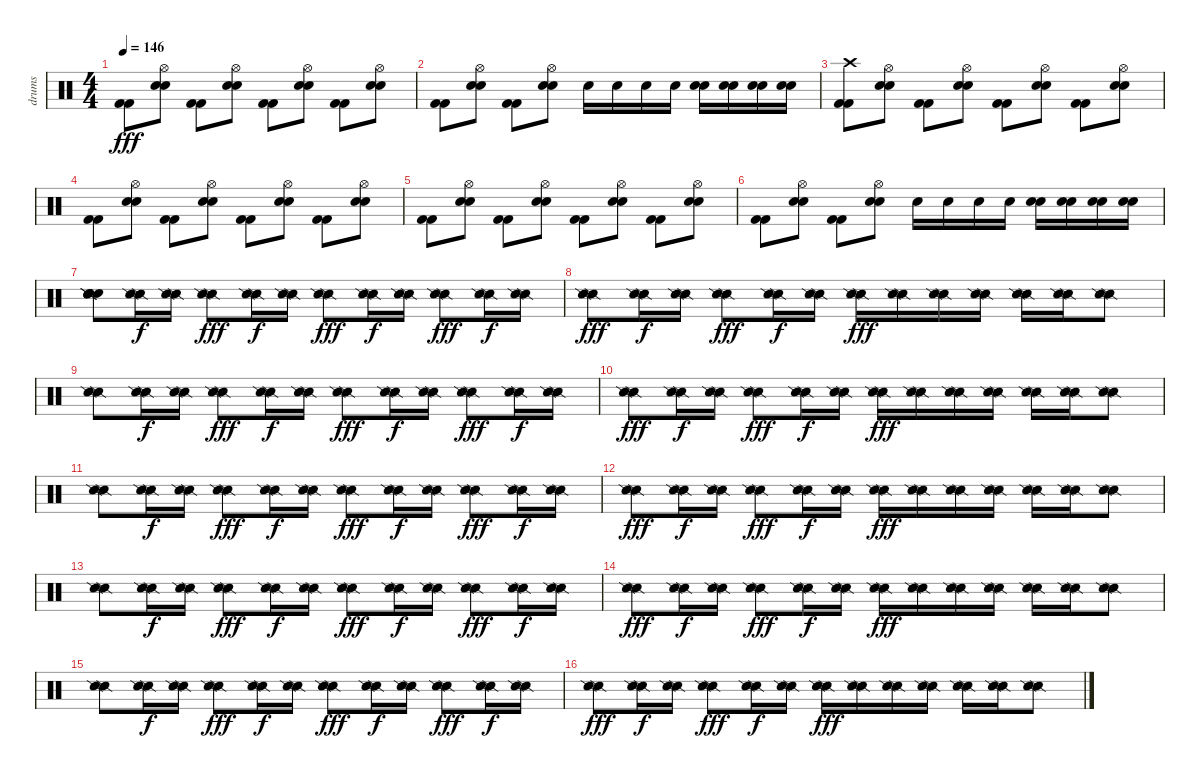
\track ("drums" "drums") {instrument percussion}
\staff {score}
\articulation defaults
\ts (4 4)
\tempo 146
\clef neutral
\ks c
("Kick (hit) 2" "Kick (hit) 2").8{dy fff} ("Hi-Hat (open)" "Electric Snare (hit)" "Electric Snare (hit)").8 ("Kick (hit) 2" "Kick (hit) 2").8 ("Hi-Hat (open)" "Electric Snare (hit)" "Electric Snare (hit)").8 ("Kick (hit) 2" "Kick (hit) 2").8 ("Hi-Hat (open)" "Electric Snare (hit)" "Electric Snare (hit)").8 ("Kick (hit) 2" "Kick (hit) 2").8 ("Hi-Hat (open)" "Electric Snare (hit)" "Electric Snare (hit)").8 |
("Kick (hit) 2" "Kick (hit) 2").8 ("Hi-Hat (open)" "Electric Snare (hit)" "Electric Snare (hit)").8 ("Kick (hit) 2" "Kick (hit) 2").8 ("Hi-Hat (open)" "Electric Snare (hit)" "Electric Snare (hit)").8 "Electric Snare (hit)".16 "Electric Snare (hit)".16 "Electric Snare (hit)".16 "Electric Snare (hit)".16 ("Electric Snare (hit)" "Electric Snare (hit)").16 ("Electric Snare (hit)" "Electric Snare (hit)").16 ("Electric Snare (hit)" "Electric Snare (hit)").16 ("Electric Snare (hit)" "Electric Snare (hit)").16 |
("Crash high (hit)" "Kick (hit) 2" "Kick (hit) 2").8 ("Hi-Hat (open)" "Electric Snare (hit)" "Electric Snare (hit)").8 ("Kick (hit) 2" "Kick (hit) 2").8 ("Hi-Hat (open)" "Electric Snare (hit)" "Electric Snare (hit)").8 ("Kick (hit) 2" "Kick (hit) 2").8 ("Hi-Hat (open)" "Electric Snare (hit)" "Electric Snare (hit)").8 ("Kick (hit) 2" "Kick (hit) 2").8 ("Hi-Hat (open)" "Electric Snare (hit)" "Electric Snare (hit)").8 |
("Kick (hit) 2" "Kick (hit) 2").8 ("Hi-Hat (open)" "Electric Snare (hit)" "Electric Snare (hit)").8 ("Kick (hit) 2" "Kick (hit) 2").8 ("Hi-Hat (open)" "Electric Snare (hit)" "Electric Snare (hit)").8 ("Kick (hit) 2" "Kick (hit) 2").8 ("Hi-Hat (open)" "Electric Snare (hit)" "Electric Snare (hit)").8 ("Kick (hit) 2" "Kick (hit) 2").8 ("Hi-Hat (open)" "Electric Snare (hit)" "Electric Snare (hit)").8 |
("Kick (hit) 2" "Kick (hit) 2").8 ("Hi-Hat (open)" "Electric Snare (hit)" "Electric Snare (hit)").8 ("Kick (hit) 2" "Kick (hit) 2").8 ("Hi-Hat (open)" "Electric Snare (hit)" "Electric Snare (hit)").8 ("Kick (hit) 2" "Kick (hit) 2").8 ("Hi-Hat (open)" "Electric Snare (hit)" "Electric Snare (hit)").8 ("Kick (hit) 2" "Kick (hit) 2").8 ("Hi-Hat (open)" "Electric Snare (hit)" "Electric Snare (hit)").8 |
("Kick (hit) 2" "Kick (hit) 2").8 ("Hi-Hat (open)" "Electric Snare (hit)" "Electric Snare (hit)").8 ("Kick (hit) 2" "Kick (hit) 2").8 ("Hi-Hat (open)" "Electric Snare (hit)" "Electric Snare (hit)").8 "Electric Snare (hit)".16 "Electric Snare (hit)".16 "Electric Snare (hit)".16 "Electric Snare (hit)".16 ("Electric Snare (hit)" "Electric Snare (hit)").16 ("Electric Snare (hit)" "Electric Snare (hit)").16 ("Electric Snare (hit)" "Electric Snare (hit)").16 ("Electric Snare (hit)" "Electric Snare (hit)").16 |
("Electric Snare (hit)" "Electric Snare (hit)" "Snare (side stick) 2" "Snare (side stick) 2" "Electric Snare (hit)").8 ("Snare (side stick) 2" "Snare (side stick) 2").16{dy f} ("Snare (side stick) 2" "Snare (side stick) 2").16 ("Snare (side stick) 2" "Snare (side stick) 2").8{dy fff} ("Snare (side stick) 2" "Snare (side stick) 2").16{dy f} ("Snare (side stick) 2" "Snare (side stick) 2").16 ("Snare (side stick) 2" "Snare (side stick) 2").8{dy fff} ("Snare (side stick) 2" "Snare (side stick) 2").16{dy f} ("Snare (side stick) 2" "Snare (side stick) 2").16 ("Snare (side stick) 2" "Snare (side stick) 2").8{dy fff} ("Snare (side stick) 2" "Snare (side stick) 2").16{dy f} ("Snare (side stick) 2" "Snare (side stick) 2").16 |
("Snare (side stick) 2" "Snare (side stick) 2").8{dy fff} ("Snare (side stick) 2" "Snare (side stick) 2").16{dy f} ("Snare (side stick) 2" "Snare (side stick) 2").16 ("Snare (side stick) 2" "Snare (side stick) 2").8{dy fff} ("Snare (side stick) 2" "Snare (side stick) 2").16{dy f} ("Snare (side stick) 2" "Snare (side stick) 2").16 ("Snare (side stick) 2" "Snare (side stick) 2").16{dy fff} ("Snare (side stick) 2" "Snare (side stick) 2").16 ("Snare (side stick) 2" "Snare (side stick) 2").16 ("Snare (side stick) 2" "Snare (side stick) 2").16 ("Snare (side stick) 2" "Snare (side stick) 2").16 ("Snare (side stick) 2" "Snare (side stick) 2").16 ("Snare (side stick) 2" "Snare (side stick) 2").8 |
("Snare (side stick) 2" "Snare (side stick) 2").8 ("Snare (side stick) 2" "Snare (side stick) 2").16{dy f} ("Snare (side stick) 2" "Snare (side stick) 2").16 ("Snare (side stick) 2" "Snare (side stick) 2").8{dy fff} ("Snare (side stick) 2" "Snare (side stick) 2").16{dy f} ("Snare (side stick) 2" "Snare (side stick) 2").16 ("Snare (side stick) 2" "Snare (side stick) 2").8{dy fff} ("Snare (side stick) 2" "Snare (side stick) 2").16{dy f} ("Snare (side stick) 2" "Snare (side stick) 2").16 ("Snare (side stick) 2" "Snare (side stick) 2").8{dy fff} ("Snare (side stick) 2" "Snare (side stick) 2").16{dy f} ("Snare (side stick) 2" "Snare (side stick) 2").16 |
("Snare (side stick) 2" "Snare (side stick) 2").8{dy fff} ("Snare (side stick) 2" "Snare (side stick) 2").16{dy f} ("Snare (side stick) 2" "Snare (side stick) 2").16 ("Snare (side stick) 2" "Snare (side stick) 2").8{dy fff} ("Snare (side stick) 2" "Snare (side stick) 2").16{dy f} ("Snare (side stick) 2" "Snare (side stick) 2").16 ("Snare (side stick) 2" "Snare (side stick) 2").16{dy fff} ("Snare (side stick) 2" "Snare (side stick) 2").16 ("Snare (side stick) 2" "Snare (side stick) 2").16 ("Snare (side stick) 2" "Snare (side stick) 2").16 ("Snare (side stick) 2" "Snare (side stick) 2").16 ("Snare (side stick) 2" "Snare (side stick) 2").16 ("Snare (side stick) 2" "Snare (side stick) 2").8 |
("Snare (side stick) 2" "Snare (side stick) 2").8 ("Snare (side stick) 2" "Snare (side stick) 2").16{dy f} ("Snare (side stick) 2" "Snare (side stick) 2").16 ("Snare (side stick) 2" "Snare (side stick) 2").8{dy fff} ("Snare (side stick) 2" "Snare (side stick) 2").16{dy f} ("Snare (side stick) 2" "Snare (side stick) 2").16 ("Snare (side stick) 2" "Snare (side stick) 2").8{dy fff} ("Snare (side stick) 2" "Snare (side stick) 2").16{dy f} ("Snare (side stick) 2" "Snare (side stick) 2").16 ("Snare (side stick) 2" "Snare (side stick) 2").8{dy fff} ("Snare (side stick) 2" "Snare (side stick) 2").16{dy f} ("Snare (side stick) 2" "Snare (side stick) 2").16 |
("Snare (side stick) 2" "Snare (side stick) 2").8{dy fff} ("Snare (side stick) 2" "Snare (side stick) 2").16{dy f} ("Snare (side stick) 2" "Snare (side stick) 2").16 ("Snare (side stick) 2" "Snare (side stick) 2").8{dy fff} ("Snare (side stick) 2" "Snare (side stick) 2").16{dy f} ("Snare (side stick) 2" "Snare (side stick) 2").16 ("Snare (side stick) 2" "Snare (side stick) 2").16{dy fff} ("Snare (side stick) 2" "Snare (side stick) 2").16 ("Snare (side stick) 2" "Snare (side stick) 2").16 ("Snare (side stick) 2" "Snare (side stick) 2").16 ("Snare (side stick) 2" "Snare (side stick) 2").16 ("Snare (side stick) 2" "Snare (side stick) 2").16 ("Snare (side stick) 2" "Snare (side stick) 2").8 |
("Snare (side stick) 2" "Snare (side stick) 2").8 ("Snare (side stick) 2" "Snare (side stick) 2").16{dy f} ("Snare (side stick) 2" "Snare (side stick) 2").16 ("Snare (side stick) 2" "Snare (side stick) 2").8{dy fff} ("Snare (side stick) 2" "Snare (side stick) 2").16{dy f} ("Snare (side stick) 2" "Snare (side stick) 2").16 ("Snare (side stick) 2" "Snare (side stick) 2").8{dy fff} ("Snare (side stick) 2" "Snare (side stick) 2").16{dy f} ("Snare (side stick) 2" "Snare (side stick) 2").16 ("Snare (side stick) 2" "Snare (side stick) 2").8{dy fff} ("Snare (side stick) 2" "Snare (side stick) 2").16{dy f} ("Snare (side stick) 2" "Snare (side stick) 2").16 |
("Snare (side stick) 2" "Snare (side stick) 2").8{dy fff} ("Snare (side stick) 2" "Snare (side stick) 2").16{dy f} ("Snare (side stick) 2" "Snare (side stick) 2").16 ("Snare (side stick) 2" "Snare (side stick) 2").8{dy fff} ("Snare (side stick) 2" "Snare (side stick) 2").16{dy f} ("Snare (side stick) 2" "Snare (side stick) 2").16 ("Snare (side stick) 2" "Snare (side stick) 2").16{dy fff} ("Snare (side stick) 2" "Snare (side stick) 2").16 ("Snare (side stick) 2" "Snare (side stick) 2").16 ("Snare (side stick) 2" "Snare (side stick) 2").16 ("Snare (side stick) 2" "Snare (side stick) 2").16 ("Snare (side stick) 2" "Snare (side stick) 2").16 ("Snare (side stick) 2" "Snare (side stick) 2").8 |
("Snare (side stick) 2" "Snare (side stick) 2").8 ("Snare (side stick) 2" "Snare (side stick) 2").16{dy f} ("Snare (side stick) 2" "Snare (side stick) 2").16 ("Snare (side stick) 2" "Snare (side stick) 2").8{dy fff} ("Snare (side stick) 2" "Snare (side stick) 2").16{dy f} ("Snare (side stick) 2" "Snare (side stick) 2").16 ("Snare (side stick) 2" "Snare (side stick) 2").8{dy fff} ("Snare (side stick) 2" "Snare (side stick) 2").16{dy f} ("Snare (side stick) 2" "Snare (side stick) 2").16 ("Snare (side stick) 2" "Snare (side stick) 2").8{dy fff} ("Snare (side stick) 2" "Snare (side stick) 2").16{dy f} ("Snare (side stick) 2" "Snare (side stick) 2").16 |
("Snare (side stick) 2" "Snare (side stick) 2").8{dy fff} ("Snare (side stick) 2" "Snare (side stick) 2").16{dy f} ("Snare (side stick) 2" "Snare (side stick) 2").16 ("Snare (side stick) 2" "Snare (side stick) 2").8{dy fff} ("Snare (side stick) 2" "Snare (side stick) 2").16{dy f} ("Snare (side stick) 2" "Snare (side stick) 2").16 ("Snare (side stick) 2" "Snare (side stick) 2").16{dy fff} ("Snare (side stick) 2" "Snare (side stick) 2").16 ("Snare (side stick) 2" "Snare (side stick) 2").16 ("Snare (side stick) 2" "Snare (side stick) 2").16 ("Snare (side stick) 2" "Snare (side stick) 2").16 ("Snare (side stick) 2" "Snare (side stick) 2").16 ("Snare (side stick) 2" "Snare (side stick) 2").8
